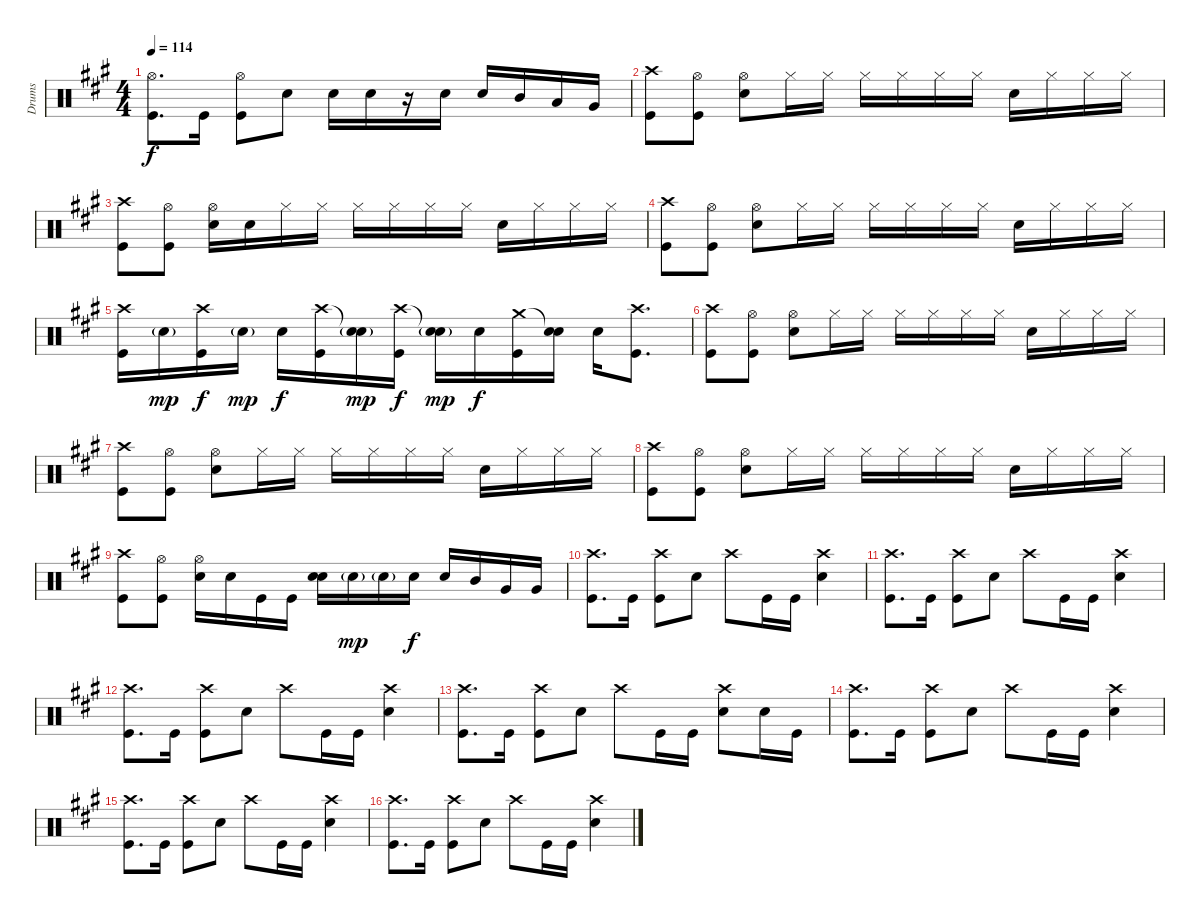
\track ("Drums" "Drums") {instrument percussion}
\staff {score}
\articulation defaults
\ts (4 4)
\tempo 114
\clef neutral
\ks a
("Hi-Hat (open)" "Kick (hit)").8{d dy f} "Kick (hit)".16 ("Hi-Hat (open)" "Kick (hit)").8 "Electric Snare (hit)".8 "Electric Snare (hit)".16 "Electric Snare (hit)".16 r.16 "Electric Snare (hit)".16 "Electric Snare (hit)".16 "Mid Tom (hit)".16 "Low Tom (hit)".16 "Very Low Tom (hit)".16 |
("Crash high (hit)" "Kick (hit)").8 ("Hi-Hat (open)" "Kick (hit)").8 ("Hi-Hat (open)" "Electric Snare (hit)").8 "Hi-Hat (closed)".16 "Hi-Hat (closed)".16 "Hi-Hat (closed)".16 "Hi-Hat (closed)".16 "Hi-Hat (closed)".16 "Hi-Hat (closed)".16 "Electric Snare (hit)".16 "Hi-Hat (closed)".16 "Hi-Hat (closed)".16 "Hi-Hat (closed)".16 |
("Crash high (hit)" "Kick (hit)").8 ("Hi-Hat (open)" "Kick (hit)").8 ("Hi-Hat (open)" "Electric Snare (hit)").16 "Electric Snare (hit)".16 "Hi-Hat (closed)".16 "Hi-Hat (closed)".16 "Hi-Hat (closed)".16 "Hi-Hat (closed)".16 "Hi-Hat (closed)".16 "Hi-Hat (closed)".16 "Electric Snare (hit)".16 "Hi-Hat (closed)".16 "Hi-Hat (closed)".16 "Hi-Hat (closed)".16 |
("Crash high (hit)" "Kick (hit)").8 ("Hi-Hat (open)" "Kick (hit)").8 ("Hi-Hat (open)" "Electric Snare (hit)").8 "Hi-Hat (closed)".16 "Hi-Hat (closed)".16 "Hi-Hat (closed)".16 "Hi-Hat (closed)".16 "Hi-Hat (closed)".16 "Hi-Hat (closed)".16 "Electric Snare (hit)".16 "Hi-Hat (closed)".16 "Hi-Hat (closed)".16 "Hi-Hat (closed)".16 |
("Crash high (hit)" "Kick (hit)").16 "Electric Snare (hit)"{g}.16{dy mp} ("Crash high (hit)" "Kick (hit)").16{dy f} "Electric Snare (hit)"{g}.16{dy mp} "Electric Snare (hit)".16{dy f} ("Crash high (hit)" "Kick (hit)").16 ("Snare (hit)"{t} "Electric Snare (hit)"{g}).16{dy mp} ("Crash high (hit)" "Kick (hit)").16{dy f} ("Snare (hit)"{t} "Electric Snare (hit)"{g}).16{dy mp} "Electric Snare (hit)".16{dy f} ("Crash medium (hit)" "Kick (hit)").16 ("Snare (hit)"{t} "Electric Snare (hit)").16 "Electric Snare (hit)".16 ("Crash high (hit)" "Kick (hit)").8{d} |
("Crash high (hit)" "Kick (hit)").8 ("Hi-Hat (open)" "Kick (hit)").8 ("Hi-Hat (open)" "Electric Snare (hit)").8 "Hi-Hat (closed)".16 "Hi-Hat (closed)".16 "Hi-Hat (closed)".16 "Hi-Hat (closed)".16 "Hi-Hat (closed)".16 "Hi-Hat (closed)".16 "Electric Snare (hit)".16 "Hi-Hat (closed)".16 "Hi-Hat (closed)".16 "Hi-Hat (closed)".16 |
("Crash high (hit)" "Kick (hit)").8 ("Hi-Hat (open)" "Kick (hit)").8 ("Hi-Hat (open)" "Electric Snare (hit)").8 "Hi-Hat (closed)".16 "Hi-Hat (closed)".16 "Hi-Hat (closed)".16 "Hi-Hat (closed)".16 "Hi-Hat (closed)".16 "Hi-Hat (closed)".16 "Electric Snare (hit)".16 "Hi-Hat (closed)".16 "Hi-Hat (closed)".16 "Hi-Hat (closed)".16 |
("Crash high (hit)" "Kick (hit)").8 ("Hi-Hat (open)" "Kick (hit)").8 ("Hi-Hat (open)" "Electric Snare (hit)").8 "Hi-Hat (closed)".16 "Hi-Hat (closed)".16 "Hi-Hat (closed)".16 "Hi-Hat (closed)".16 "Hi-Hat (closed)".16 "Hi-Hat (closed)".16 "Electric Snare (hit)".16 "Hi-Hat (closed)".16 "Hi-Hat (closed)".16 "Hi-Hat (closed)".16 |
("Crash high (hit)" "Kick (hit)").8 ("Hi-Hat (open)" "Kick (hit)").8 ("Hi-Hat (open)" "Electric Snare (hit)").16 "Electric Snare (hit)".16 "Kick (hit)".16 "Kick (hit)".16 ("Electric Snare (hit)" "Electric Snare (hit)").16{bd 240} "Electric Snare (hit)"{g}.16{dy mp} "Electric Snare (hit)"{g}.16 "Electric Snare (hit)".16{dy f} "Electric Snare (hit)".16 "Mid Tom (hit)".16 "Very Low Tom (hit)".16 "Very Low Tom (hit)".16 |
("Crash high (hit)" "Kick (hit)").8{d} "Kick (hit)".16 ("Crash high (hit)" "Kick (hit)").8 "Electric Snare (hit)".8 "Crash high (hit)".8 "Kick (hit)".16 "Kick (hit)".16 ("Crash high (hit)" "Electric Snare (hit)").4 |
("Crash high (hit)" "Kick (hit)").8{d} "Kick (hit)".16 ("Crash high (hit)" "Kick (hit)").8 "Electric Snare (hit)".8 "Crash high (hit)".8 "Kick (hit)".16 "Kick (hit)".16 ("Crash high (hit)" "Electric Snare (hit)").4 |
("Crash high (hit)" "Kick (hit)").8{d} "Kick (hit)".16 ("Crash high (hit)" "Kick (hit)").8 "Electric Snare (hit)".8 "Crash high (hit)".8 "Kick (hit)".16 "Kick (hit)".16 ("Crash high (hit)" "Electric Snare (hit)").4 |
("Crash high (hit)" "Kick (hit)").8{d} "Kick (hit)".16 ("Crash high (hit)" "Kick (hit)").8 "Electric Snare (hit)".8 "Crash high (hit)".8 "Kick (hit)".16 "Kick (hit)".16 ("Crash high (hit)" "Electric Snare (hit)").8 "Electric Snare (hit)".16 "Kick (hit)".16 |
("Crash high (hit)" "Kick (hit)").8{d} "Kick (hit)".16 ("Crash high (hit)" "Kick (hit)").8 "Electric Snare (hit)".8 "Crash high (hit)".8 "Kick (hit)".16 "Kick (hit)".16 ("Crash high (hit)" "Electric Snare (hit)").4 |
("Crash high (hit)" "Kick (hit)").8{d} "Kick (hit)".16 ("Crash high (hit)" "Kick (hit)").8 "Electric Snare (hit)".8 "Crash high (hit)".8 "Kick (hit)".16 "Kick (hit)".16 ("Crash high (hit)" "Electric Snare (hit)").4 |
("Crash high (hit)" "Kick (hit)").8{d} "Kick (hit)".16 ("Crash high (hit)" "Kick (hit)").8 "Electric Snare (hit)".8 "Crash high (hit)".8 "Kick (hit)".16 "Kick (hit)".16 ("Crash high (hit)" "Electric Snare (hit)").4
